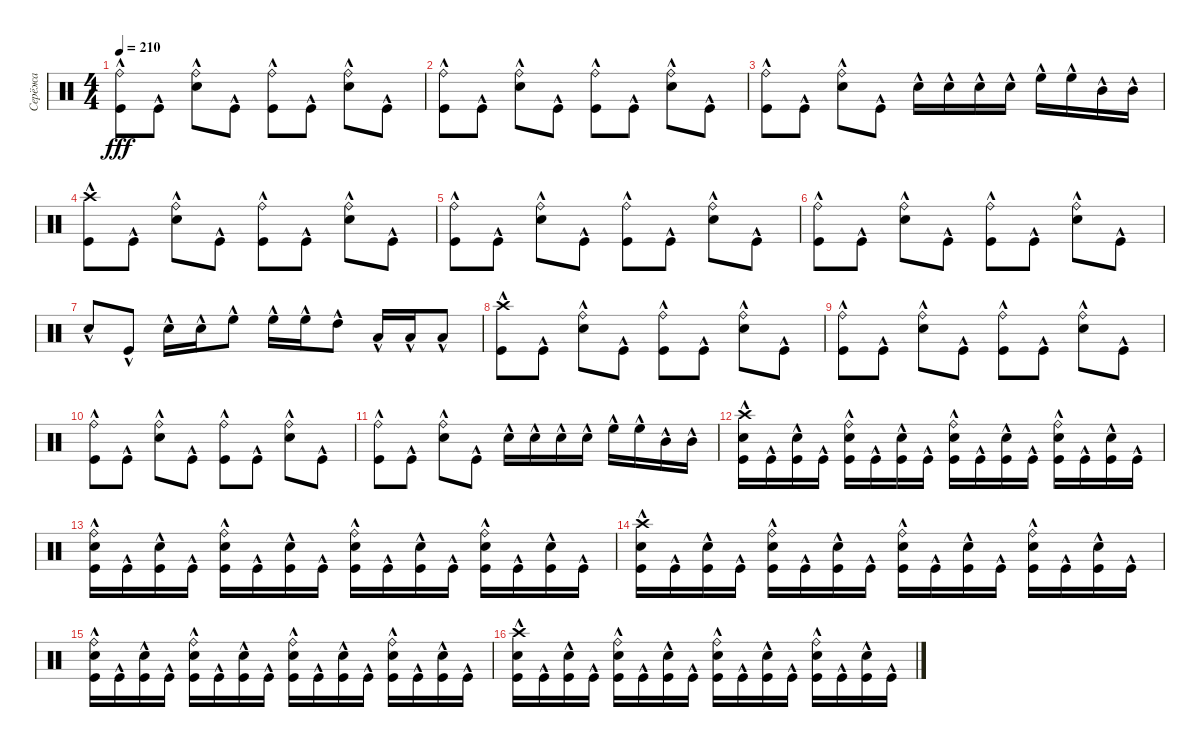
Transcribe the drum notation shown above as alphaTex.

\track ("Серёжа" "Серёжа") {instrument percussion}
\staff {score}
\articulation defaults
\ts (4 4)
\tempo 210
\clef neutral
\ks c
("Ride (bell)" "Kick (hit)"{hac}).8{dy fff} "Kick (hit)"{hac}.8 ("Ride (bell)" "Snare (hit) 2"{hac}).8 "Kick (hit)"{hac}.8 ("Ride (bell)" "Kick (hit)"{hac}).8 "Kick (hit)"{hac}.8 ("Ride (bell)" "Snare (hit) 2"{hac}).8 "Kick (hit)"{hac}.8 |
("Ride (bell)" "Kick (hit)"{hac}).8 "Kick (hit)"{hac}.8 ("Ride (bell)" "Snare (hit) 2"{hac}).8 "Kick (hit)"{hac}.8 ("Ride (bell)" "Kick (hit)"{hac}).8 "Kick (hit)"{hac}.8 ("Ride (bell)" "Snare (hit) 2"{hac}).8 "Kick (hit)"{hac}.8 |
("Ride (bell)" "Kick (hit)"{hac}).8 "Kick (hit)"{hac}.8 ("Ride (bell)" "Snare (hit) 2"{hac}).8 "Kick (hit)"{hac}.8 "Snare (hit) 2"{hac}.16 "Snare (hit) 2"{hac}.16 "Snare (hit) 2"{hac}.16 "Snare (hit) 2"{hac}.16 "High Floor Tom (hit)"{hac}.16 "High Floor Tom (hit)"{hac}.16 "Mid Tom (hit)"{hac}.16 "Mid Tom (hit)"{hac}.16 |
("Crash high (hit)"{hac} "Kick (hit)"{hac}).8 "Kick (hit)"{hac}.8 ("Ride (bell)" "Snare (hit) 2"{hac}).8 "Kick (hit)"{hac}.8 ("Ride (bell)" "Kick (hit)"{hac}).8 "Kick (hit)"{hac}.8 ("Ride (bell)" "Snare (hit) 2"{hac}).8 "Kick (hit)"{hac}.8 |
("Ride (bell)" "Kick (hit)"{hac}).8 "Kick (hit)"{hac}.8 ("Ride (bell)" "Snare (hit) 2"{hac}).8 "Kick (hit)"{hac}.8 ("Ride (bell)" "Kick (hit)"{hac}).8 "Kick (hit)"{hac}.8 ("Ride (bell)" "Snare (hit) 2"{hac}).8 "Kick (hit)"{hac}.8 |
("Ride (bell)" "Kick (hit)"{hac}).8 "Kick (hit)"{hac}.8 ("Ride (bell)" "Snare (hit) 2"{hac}).8 "Kick (hit)"{hac}.8 ("Ride (bell)" "Kick (hit)"{hac}).8 "Kick (hit)"{hac}.8 ("Ride (bell)" "Snare (hit) 2"{hac}).8 "Kick (hit)"{hac}.8 |
"Snare (hit) 2"{hac}.8 "Kick (hit)"{hac}.8 "Snare (hit) 2"{hac}.16 "Snare (hit) 2"{hac}.16 "High Floor Tom (hit)"{hac}.8 "High Floor Tom (hit)"{hac}.16 "High Floor Tom (hit)"{hac}.16 "High Tom (hit)"{hac}.8 "Low Tom (hit)"{hac}.16 "Low Tom (hit)"{hac}.16 "Low Floor Tom (hit)"{hac}.8 |
("Crash high (hit)"{hac} "Kick (hit)"{hac}).8 "Kick (hit)"{hac}.8 ("Ride (bell)" "Snare (hit) 2"{hac}).8 "Kick (hit)"{hac}.8 ("Ride (bell)" "Kick (hit)"{hac}).8 "Kick (hit)"{hac}.8 ("Ride (bell)" "Snare (hit) 2"{hac}).8 "Kick (hit)"{hac}.8 |
("Ride (bell)" "Kick (hit)"{hac}).8 "Kick (hit)"{hac}.8 ("Ride (bell)" "Snare (hit) 2"{hac}).8 "Kick (hit)"{hac}.8 ("Ride (bell)" "Kick (hit)"{hac}).8 "Kick (hit)"{hac}.8 ("Ride (bell)" "Snare (hit) 2"{hac}).8 "Kick (hit)"{hac}.8 |
("Ride (bell)" "Kick (hit)"{hac}).8 "Kick (hit)"{hac}.8 ("Ride (bell)" "Snare (hit) 2"{hac}).8 "Kick (hit)"{hac}.8 ("Ride (bell)" "Kick (hit)"{hac}).8 "Kick (hit)"{hac}.8 ("Ride (bell)" "Snare (hit) 2"{hac}).8 "Kick (hit)"{hac}.8 |
("Ride (bell)" "Kick (hit)"{hac}).8 "Kick (hit)"{hac}.8 ("Ride (bell)" "Snare (hit) 2"{hac}).8 "Kick (hit)"{hac}.8 "Snare (hit) 2"{hac}.16 "Snare (hit) 2"{hac}.16 "Snare (hit) 2"{hac}.16 "Snare (hit) 2"{hac}.16 "High Floor Tom (hit)"{hac}.16 "High Floor Tom (hit)"{hac}.16 "Mid Tom (hit)"{hac}.16 "Mid Tom (hit)"{hac}.16 |
("Crash high (hit)"{hac} "Snare (hit) 2"{hac} "Kick (hit)"{hac}).16 "Kick (hit)"{hac}.16 ("Snare (hit) 2"{hac} "Kick (hit)"{hac}).16 "Kick (hit)"{hac}.16 ("Ride (bell)" "Snare (hit) 2"{hac} "Kick (hit)"{hac}).16 "Kick (hit)"{hac}.16 ("Snare (hit) 2"{hac} "Kick (hit)"{hac}).16 "Kick (hit)"{hac}.16 ("Ride (bell)" "Snare (hit) 2"{hac} "Kick (hit)"{hac}).16 "Kick (hit)"{hac}.16 ("Snare (hit) 2"{hac} "Kick (hit)"{hac}).16 "Kick (hit)"{hac}.16 ("Ride (bell)" "Snare (hit) 2"{hac} "Kick (hit)"{hac}).16 "Kick (hit)"{hac}.16 ("Snare (hit) 2"{hac} "Kick (hit)"{hac}).16 "Kick (hit)"{hac}.16 |
("Ride (bell)" "Snare (hit) 2"{hac} "Kick (hit)"{hac}).16 "Kick (hit)"{hac}.16 ("Snare (hit) 2"{hac} "Kick (hit)"{hac}).16 "Kick (hit)"{hac}.16 ("Ride (bell)" "Snare (hit) 2"{hac} "Kick (hit)"{hac}).16 "Kick (hit)"{hac}.16 ("Snare (hit) 2"{hac} "Kick (hit)"{hac}).16 "Kick (hit)"{hac}.16 ("Ride (bell)" "Snare (hit) 2"{hac} "Kick (hit)"{hac}).16 "Kick (hit)"{hac}.16 ("Snare (hit) 2"{hac} "Kick (hit)"{hac}).16 "Kick (hit)"{hac}.16 ("Ride (bell)" "Snare (hit) 2"{hac} "Kick (hit)"{hac}).16 "Kick (hit)"{hac}.16 ("Snare (hit) 2"{hac} "Kick (hit)"{hac}).16 "Kick (hit)"{hac}.16 |
("Crash high (hit)"{hac} "Snare (hit) 2"{hac} "Kick (hit)"{hac}).16 "Kick (hit)"{hac}.16 ("Snare (hit) 2"{hac} "Kick (hit)"{hac}).16 "Kick (hit)"{hac}.16 ("Ride (bell)" "Snare (hit) 2"{hac} "Kick (hit)"{hac}).16 "Kick (hit)"{hac}.16 ("Snare (hit) 2"{hac} "Kick (hit)"{hac}).16 "Kick (hit)"{hac}.16 ("Ride (bell)" "Snare (hit) 2"{hac} "Kick (hit)"{hac}).16 "Kick (hit)"{hac}.16 ("Snare (hit) 2"{hac} "Kick (hit)"{hac}).16 "Kick (hit)"{hac}.16 ("Ride (bell)" "Snare (hit) 2"{hac} "Kick (hit)"{hac}).16 "Kick (hit)"{hac}.16 ("Snare (hit) 2"{hac} "Kick (hit)"{hac}).16 "Kick (hit)"{hac}.16 |
("Ride (bell)" "Snare (hit) 2"{hac} "Kick (hit)"{hac}).16 "Kick (hit)"{hac}.16 ("Snare (hit) 2"{hac} "Kick (hit)"{hac}).16 "Kick (hit)"{hac}.16 ("Ride (bell)" "Snare (hit) 2"{hac} "Kick (hit)"{hac}).16 "Kick (hit)"{hac}.16 ("Snare (hit) 2"{hac} "Kick (hit)"{hac}).16 "Kick (hit)"{hac}.16 ("Ride (bell)" "Snare (hit) 2"{hac} "Kick (hit)"{hac}).16 "Kick (hit)"{hac}.16 ("Snare (hit) 2"{hac} "Kick (hit)"{hac}).16 "Kick (hit)"{hac}.16 ("Ride (bell)" "Snare (hit) 2"{hac} "Kick (hit)"{hac}).16 "Kick (hit)"{hac}.16 ("Snare (hit) 2"{hac} "Kick (hit)"{hac}).16 "Kick (hit)"{hac}.16 |
("Crash high (hit)"{hac} "Snare (hit) 2"{hac} "Kick (hit)"{hac}).16 "Kick (hit)"{hac}.16 ("Snare (hit) 2"{hac} "Kick (hit)"{hac}).16 "Kick (hit)"{hac}.16 ("Ride (bell)" "Snare (hit) 2"{hac} "Kick (hit)"{hac}).16 "Kick (hit)"{hac}.16 ("Snare (hit) 2"{hac} "Kick (hit)"{hac}).16 "Kick (hit)"{hac}.16 ("Ride (bell)" "Snare (hit) 2"{hac} "Kick (hit)"{hac}).16 "Kick (hit)"{hac}.16 ("Snare (hit) 2"{hac} "Kick (hit)"{hac}).16 "Kick (hit)"{hac}.16 ("Ride (bell)" "Snare (hit) 2"{hac} "Kick (hit)"{hac}).16 "Kick (hit)"{hac}.16 ("Snare (hit) 2"{hac} "Kick (hit)"{hac}).16 "Kick (hit)"{hac}.16
